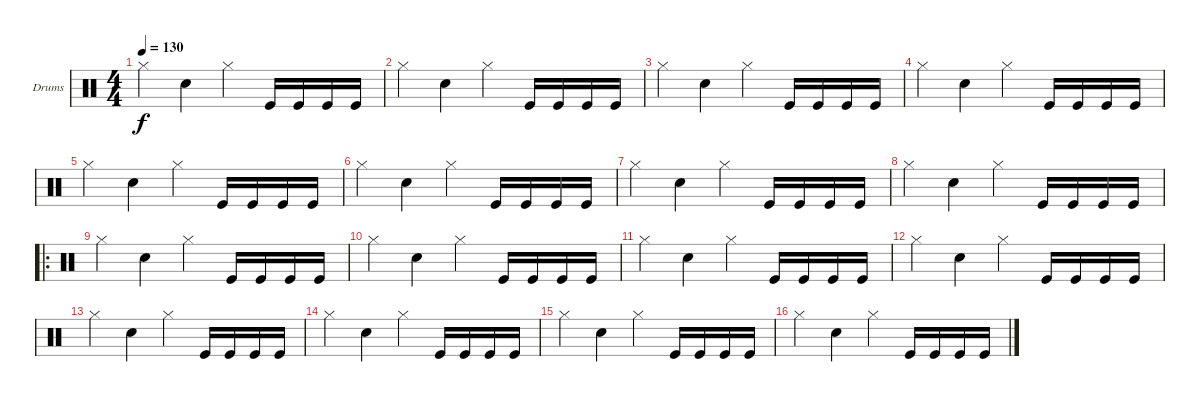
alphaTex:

\defaultSystemsLayout 4
\bracketExtendMode groupsimilarinstruments
\firstSystemTrackNameOrientation horizontal
\otherSystemsTrackNameOrientation horizontal
\track ("Drumkit" "Drums") {instrument percussion}
\staff {score}
\articulation defaults
\ts (4 4)
\tempo 130
\clef neutral
\scale
0.472222
\ks c "Hi-Hat (closed)".4{dy f} "Snare (hit) 2".4 "Hi-Hat (closed)".4 "Kick (hit)".16 "Kick (hit)".16 "Kick (hit)".16 "Kick (hit)".16
|
\scale
0.263889 "Hi-Hat (closed)".4 "Snare (hit) 2".4 "Hi-Hat (closed)".4 "Kick (hit)".16 "Kick (hit)".16 "Kick (hit)".16 "Kick (hit)".16 |
\scale
0.263889 "Hi-Hat (closed)".4 "Snare (hit) 2".4 "Hi-Hat (closed)".4 "Kick (hit)".16 "Kick (hit)".16 "Kick (hit)".16 "Kick (hit)".16 |
\scale
0.333333 "Hi-Hat (closed)".4 "Snare (hit) 2".4 "Hi-Hat (closed)".4 "Kick (hit)".16 "Kick (hit)".16 "Kick (hit)".16 "Kick (hit)".16 |
\scale
0.333333 "Hi-Hat (closed)".4 "Snare (hit) 2".4 "Hi-Hat (closed)".4 "Kick (hit)".16 "Kick (hit)".16 "Kick (hit)".16 "Kick (hit)".16 |
\scale
0.333333 "Hi-Hat (closed)".4 "Snare (hit) 2".4 "Hi-Hat (closed)".4 "Kick (hit)".16 "Kick (hit)".16 "Kick (hit)".16 "Kick (hit)".16 |
\scale
0.311475 "Hi-Hat (closed)".4 "Snare (hit) 2".4 "Hi-Hat (closed)".4 "Kick (hit)".16 "Kick (hit)".16 "Kick (hit)".16 "Kick (hit)".16 |
\scale
0.311475 "Hi-Hat (closed)".4 "Snare (hit) 2".4 "Hi-Hat (closed)".4 "Kick (hit)".16 "Kick (hit)".16 "Kick (hit)".16 "Kick (hit)".16 |
\ro
\scale
0.377049 "Hi-Hat (closed)".4 "Snare (hit) 2".4 "Hi-Hat (closed)".4 "Kick (hit)".16 "Kick (hit)".16 "Kick (hit)".16 "Kick (hit)".16 |
\scale
0.333333 "Hi-Hat (closed)".4 "Snare (hit) 2".4 "Hi-Hat (closed)".4 "Kick (hit)".16 "Kick (hit)".16 "Kick (hit)".16 "Kick (hit)".16 |
\scale
0.333333 "Hi-Hat (closed)".4 "Snare (hit) 2".4 "Hi-Hat (closed)".4 "Kick (hit)".16 "Kick (hit)".16 "Kick (hit)".16 "Kick (hit)".16 |
\scale
0.333333 "Hi-Hat (closed)".4 "Snare (hit) 2".4 "Hi-Hat (closed)".4 "Kick (hit)".16 "Kick (hit)".16 "Kick (hit)".16 "Kick (hit)".16 |
\scale
0.333333 "Hi-Hat (closed)".4 "Snare (hit) 2".4 "Hi-Hat (closed)".4 "Kick (hit)".16 "Kick (hit)".16 "Kick (hit)".16 "Kick (hit)".16 |
\scale
0.333333 "Hi-Hat (closed)".4 "Snare (hit) 2".4 "Hi-Hat (closed)".4 "Kick (hit)".16 "Kick (hit)".16 "Kick (hit)".16 "Kick (hit)".16 |
\scale
0.333333 "Hi-Hat (closed)".4 "Snare (hit) 2".4 "Hi-Hat (closed)".4 "Kick (hit)".16 "Kick (hit)".16 "Kick (hit)".16 "Kick (hit)".16 |
\scale
0.333333 "Hi-Hat (closed)".4 "Snare (hit) 2".4 "Hi-Hat (closed)".4 "Kick (hit)".16 "Kick (hit)".16 "Kick (hit)".16 "Kick (hit)".16
